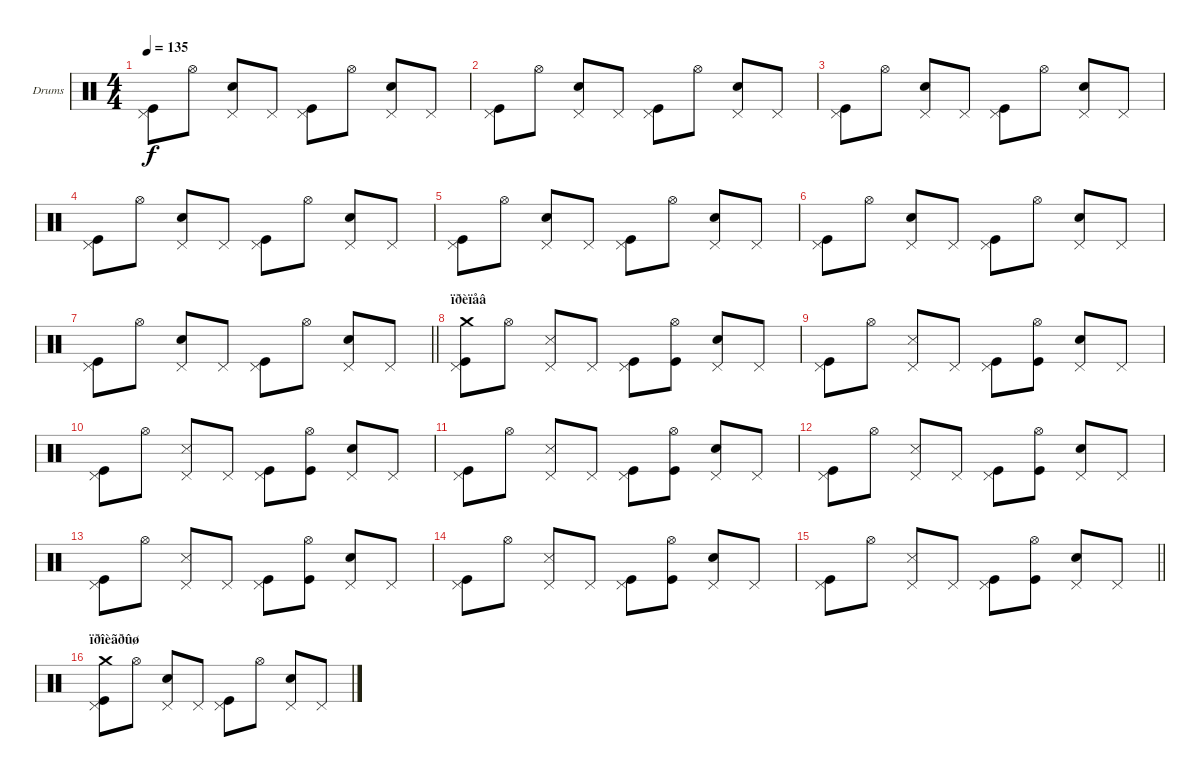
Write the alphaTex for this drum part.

\bracketExtendMode groupsimilarinstruments
\firstSystemTrackNameOrientation horizontal
\otherSystemsTrackNameOrientation horizontal
\track ("Drumkit" "Drums") {instrument percussion}
\staff {score}
\articulation defaults
\ts (4 4)
\tempo 135
\clef neutral
\ks c
("Pedal Hi-Hat (hit)" "Kick (hit)").8{dy f} "Hi-Hat (open)".8 ("Pedal Hi-Hat (hit)" "Snare (hit) 2").8 "Pedal Hi-Hat (hit)".8 ("Pedal Hi-Hat (hit)" "Kick (hit)").8 "Hi-Hat (open)".8 ("Pedal Hi-Hat (hit)" "Snare (hit) 2").8 "Pedal Hi-Hat (hit)".8 |
("Pedal Hi-Hat (hit)" "Kick (hit)").8 "Hi-Hat (open)".8 ("Pedal Hi-Hat (hit)" "Snare (hit) 2").8 "Pedal Hi-Hat (hit)".8 ("Pedal Hi-Hat (hit)" "Kick (hit)").8 "Hi-Hat (open)".8 ("Pedal Hi-Hat (hit)" "Snare (hit) 2").8 "Pedal Hi-Hat (hit)".8 |
("Pedal Hi-Hat (hit)" "Kick (hit)").8 "Hi-Hat (open)".8 ("Pedal Hi-Hat (hit)" "Snare (hit) 2").8 "Pedal Hi-Hat (hit)".8 ("Pedal Hi-Hat (hit)" "Kick (hit)").8 "Hi-Hat (open)".8 ("Pedal Hi-Hat (hit)" "Snare (hit) 2").8 "Pedal Hi-Hat (hit)".8 |
("Pedal Hi-Hat (hit)" "Kick (hit)").8 "Hi-Hat (open)".8 ("Pedal Hi-Hat (hit)" "Snare (hit) 2").8 "Pedal Hi-Hat (hit)".8 ("Pedal Hi-Hat (hit)" "Kick (hit)").8 "Hi-Hat (open)".8 ("Pedal Hi-Hat (hit)" "Snare (hit) 2").8 "Pedal Hi-Hat (hit)".8 |
("Pedal Hi-Hat (hit)" "Kick (hit)").8 "Hi-Hat (open)".8 ("Pedal Hi-Hat (hit)" "Snare (hit) 2").8 "Pedal Hi-Hat (hit)".8 ("Pedal Hi-Hat (hit)" "Kick (hit)").8 "Hi-Hat (open)".8 ("Pedal Hi-Hat (hit)" "Snare (hit) 2").8 "Pedal Hi-Hat (hit)".8 |
("Pedal Hi-Hat (hit)" "Kick (hit)").8 "Hi-Hat (open)".8 ("Pedal Hi-Hat (hit)" "Snare (hit) 2").8 "Pedal Hi-Hat (hit)".8 ("Pedal Hi-Hat (hit)" "Kick (hit)").8 "Hi-Hat (open)".8 ("Pedal Hi-Hat (hit)" "Snare (hit) 2").8 "Pedal Hi-Hat (hit)".8 |
\barLineRight lightlight
("Pedal Hi-Hat (hit)" "Kick (hit)").8 "Hi-Hat (open)".8 ("Pedal Hi-Hat (hit)" "Snare (hit) 2").8 "Pedal Hi-Hat (hit)".8 ("Pedal Hi-Hat (hit)" "Kick (hit)").8 "Hi-Hat (open)".8 ("Pedal Hi-Hat (hit)" "Snare (hit) 2").8 "Pedal Hi-Hat (hit)".8 |
\section ("" "ïðèïåâ")
("Pedal Hi-Hat (hit)" "Kick (hit)" "Crash medium (hit)").8 "Hi-Hat (open)".8 ("Pedal Hi-Hat (hit)" "Snare (side stick) 3").8 "Pedal Hi-Hat (hit)".8 ("Pedal Hi-Hat (hit)" "Kick (hit)").8 ("Hi-Hat (open)" "Kick (hit)").8 ("Pedal Hi-Hat (hit)" "Snare (hit) 2").8 "Pedal Hi-Hat (hit)".8 |
("Pedal Hi-Hat (hit)" "Kick (hit)").8 "Hi-Hat (open)".8 ("Pedal Hi-Hat (hit)" "Snare (side stick) 3").8 "Pedal Hi-Hat (hit)".8 ("Pedal Hi-Hat (hit)" "Kick (hit)").8 ("Hi-Hat (open)" "Kick (hit)").8 ("Pedal Hi-Hat (hit)" "Snare (hit) 2").8 "Pedal Hi-Hat (hit)".8 |
("Pedal Hi-Hat (hit)" "Kick (hit)").8 "Hi-Hat (open)".8 ("Pedal Hi-Hat (hit)" "Snare (side stick) 3").8 "Pedal Hi-Hat (hit)".8 ("Pedal Hi-Hat (hit)" "Kick (hit)").8 ("Hi-Hat (open)" "Kick (hit)").8 ("Pedal Hi-Hat (hit)" "Snare (hit) 2").8 "Pedal Hi-Hat (hit)".8 |
("Pedal Hi-Hat (hit)" "Kick (hit)").8 "Hi-Hat (open)".8 ("Pedal Hi-Hat (hit)" "Snare (side stick) 3").8 "Pedal Hi-Hat (hit)".8 ("Pedal Hi-Hat (hit)" "Kick (hit)").8 ("Hi-Hat (open)" "Kick (hit)").8 ("Pedal Hi-Hat (hit)" "Snare (hit) 2").8 "Pedal Hi-Hat (hit)".8 |
("Pedal Hi-Hat (hit)" "Kick (hit)").8 "Hi-Hat (open)".8 ("Pedal Hi-Hat (hit)" "Snare (side stick) 3").8 "Pedal Hi-Hat (hit)".8 ("Pedal Hi-Hat (hit)" "Kick (hit)").8 ("Hi-Hat (open)" "Kick (hit)").8 ("Pedal Hi-Hat (hit)" "Snare (hit) 2").8 "Pedal Hi-Hat (hit)".8 |
("Pedal Hi-Hat (hit)" "Kick (hit)").8 "Hi-Hat (open)".8 ("Pedal Hi-Hat (hit)" "Snare (side stick) 3").8 "Pedal Hi-Hat (hit)".8 ("Pedal Hi-Hat (hit)" "Kick (hit)").8 ("Hi-Hat (open)" "Kick (hit)").8 ("Pedal Hi-Hat (hit)" "Snare (hit) 2").8 "Pedal Hi-Hat (hit)".8 |
("Pedal Hi-Hat (hit)" "Kick (hit)").8 "Hi-Hat (open)".8 ("Pedal Hi-Hat (hit)" "Snare (side stick) 3").8 "Pedal Hi-Hat (hit)".8 ("Pedal Hi-Hat (hit)" "Kick (hit)").8 ("Hi-Hat (open)" "Kick (hit)").8 ("Pedal Hi-Hat (hit)" "Snare (hit) 2").8 "Pedal Hi-Hat (hit)".8 |
\barLineRight lightlight
("Pedal Hi-Hat (hit)" "Kick (hit)").8 "Hi-Hat (open)".8 ("Pedal Hi-Hat (hit)" "Snare (side stick) 3").8 "Pedal Hi-Hat (hit)".8 ("Pedal Hi-Hat (hit)" "Kick (hit)").8 ("Hi-Hat (open)" "Kick (hit)").8 ("Pedal Hi-Hat (hit)" "Snare (hit) 2").8 "Pedal Hi-Hat (hit)".8 |
\section ("" "ïðîèãðûø")
("Pedal Hi-Hat (hit)" "Kick (hit)" "Crash medium (hit)").8 "Hi-Hat (open)".8 ("Pedal Hi-Hat (hit)" "Snare (hit) 2").8 "Pedal Hi-Hat (hit)".8 ("Pedal Hi-Hat (hit)" "Kick (hit)").8 "Hi-Hat (open)".8 ("Pedal Hi-Hat (hit)" "Snare (hit) 2").8 "Pedal Hi-Hat (hit)".8
